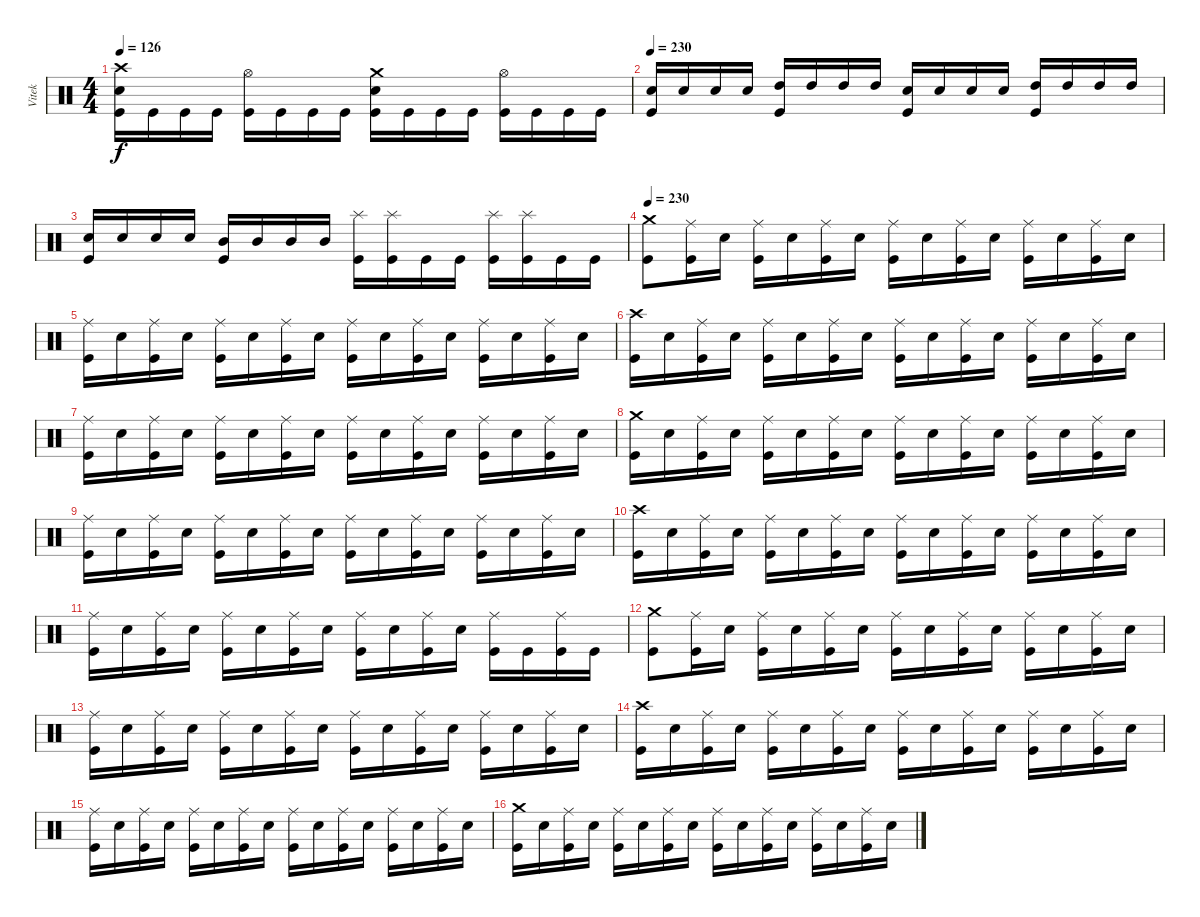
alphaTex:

\track ("Vitek" "Vitek") {instrument percussion}
\staff {score}
\articulation defaults
\ts (4 4)
\tempo 126
\clef neutral
\ks c
("Crash high (hit)" "Snare (hit) 2" "Kick (hit)").16{dy f} "Kick (hit)".16 "Kick (hit)".16 "Kick (hit)".16 ("Hi-Hat (open)" "Kick (hit)").16 "Kick (hit)".16 "Kick (hit)".16 "Kick (hit)".16 ("Crash medium (hit)" "Snare (hit) 2" "Kick (hit)").16 "Kick (hit)".16 "Kick (hit)".16 "Kick (hit)".16 ("Hi-Hat (open)" "Kick (hit)").16 "Kick (hit)".16 "Kick (hit)".16 "Kick (hit)".16 |
\tempo 230
("Snare (hit) 2" "Kick (hit)").16 "Snare (hit) 2".16 "Snare (hit) 2".16 "Snare (hit) 2".16 ("High Tom (hit)" "Kick (hit)").16 "High Tom (hit)".16 "High Tom (hit)".16 "High Tom (hit)".16 ("Snare (hit) 2" "Kick (hit)").16 "Snare (hit) 2".16 "Snare (hit) 2".16 "Snare (hit) 2".16 ("High Tom (hit)" "Kick (hit)").16 "High Tom (hit)".16 "High Tom (hit)".16 "High Tom (hit)".16 |
("Snare (hit) 2" "Kick (hit)").16 "Snare (hit) 2".16 "Snare (hit) 2".16 "Snare (hit) 2".16 ("Mid Tom (hit)" "Kick (hit)").16 "Mid Tom (hit)".16 "Mid Tom (hit)".16 "Mid Tom (hit)".16 ("Splash (hit)" "Kick (hit)").16 ("Splash (hit)" "Kick (hit)").16 "Kick (hit)".16 "Kick (hit)".16 ("Splash (hit)" "Kick (hit)").16 ("Splash (hit)" "Kick (hit)").16 "Kick (hit)".16 "Kick (hit)".16 |
\tempo 230
("Crash medium (hit)" "Kick (hit)").8 ("Ride (middle)" "Kick (hit)").16 "Snare (hit) 2".16 ("Ride (middle)" "Kick (hit)").16 "Snare (hit) 2".16 ("Ride (middle)" "Kick (hit)").16 "Snare (hit) 2".16 ("Ride (middle)" "Kick (hit)").16 "Snare (hit) 2".16 ("Ride (middle)" "Kick (hit)").16 "Snare (hit) 2".16 ("Ride (middle)" "Kick (hit)").16 "Snare (hit) 2".16 ("Ride (middle)" "Kick (hit)").16 "Snare (hit) 2".16 |
("Ride (middle)" "Kick (hit)").16 "Snare (hit) 2".16 ("Ride (middle)" "Kick (hit)").16 "Snare (hit) 2".16 ("Ride (middle)" "Kick (hit)").16 "Snare (hit) 2".16 ("Ride (middle)" "Kick (hit)").16 "Snare (hit) 2".16 ("Ride (middle)" "Kick (hit)").16 "Snare (hit) 2".16 ("Ride (middle)" "Kick (hit)").16 "Snare (hit) 2".16 ("Ride (middle)" "Kick (hit)").16 "Snare (hit) 2".16 ("Ride (middle)" "Kick (hit)").16 "Snare (hit) 2".16 |
("Crash high (hit)" "Kick (hit)").16 "Snare (hit) 2".16 ("Ride (middle)" "Kick (hit)").16 "Snare (hit) 2".16 ("Ride (middle)" "Kick (hit)").16 "Snare (hit) 2".16 ("Ride (middle)" "Kick (hit)").16 "Snare (hit) 2".16 ("Ride (middle)" "Kick (hit)").16 "Snare (hit) 2".16 ("Ride (middle)" "Kick (hit)").16 "Snare (hit) 2".16 ("Ride (middle)" "Kick (hit)").16 "Snare (hit) 2".16 ("Ride (middle)" "Kick (hit)").16 "Snare (hit) 2".16 |
("Ride (middle)" "Kick (hit)").16 "Snare (hit) 2".16 ("Ride (middle)" "Kick (hit)").16 "Snare (hit) 2".16 ("Ride (middle)" "Kick (hit)").16 "Snare (hit) 2".16 ("Ride (middle)" "Kick (hit)").16 "Snare (hit) 2".16 ("Ride (middle)" "Kick (hit)").16 "Snare (hit) 2".16 ("Ride (middle)" "Kick (hit)").16 "Snare (hit) 2".16 ("Ride (middle)" "Kick (hit)").16 "Snare (hit) 2".16 ("Ride (middle)" "Kick (hit)").16 "Snare (hit) 2".16 |
("Crash medium (hit)" "Kick (hit)").16 "Snare (hit) 2".16 ("Ride (middle)" "Kick (hit)").16 "Snare (hit) 2".16 ("Ride (middle)" "Kick (hit)").16 "Snare (hit) 2".16 ("Ride (middle)" "Kick (hit)").16 "Snare (hit) 2".16 ("Ride (middle)" "Kick (hit)").16 "Snare (hit) 2".16 ("Ride (middle)" "Kick (hit)").16 "Snare (hit) 2".16 ("Ride (middle)" "Kick (hit)").16 "Snare (hit) 2".16 ("Ride (middle)" "Kick (hit)").16 "Snare (hit) 2".16 |
("Ride (middle)" "Kick (hit)").16 "Snare (hit) 2".16 ("Ride (middle)" "Kick (hit)").16 "Snare (hit) 2".16 ("Ride (middle)" "Kick (hit)").16 "Snare (hit) 2".16 ("Ride (middle)" "Kick (hit)").16 "Snare (hit) 2".16 ("Ride (middle)" "Kick (hit)").16 "Snare (hit) 2".16 ("Ride (middle)" "Kick (hit)").16 "Snare (hit) 2".16 ("Ride (middle)" "Kick (hit)").16 "Snare (hit) 2".16 ("Ride (middle)" "Kick (hit)").16 "Snare (hit) 2".16 |
("Crash high (hit)" "Kick (hit)").16 "Snare (hit) 2".16 ("Ride (middle)" "Kick (hit)").16 "Snare (hit) 2".16 ("Ride (middle)" "Kick (hit)").16 "Snare (hit) 2".16 ("Ride (middle)" "Kick (hit)").16 "Snare (hit) 2".16 ("Ride (middle)" "Kick (hit)").16 "Snare (hit) 2".16 ("Ride (middle)" "Kick (hit)").16 "Snare (hit) 2".16 ("Ride (middle)" "Kick (hit)").16 "Snare (hit) 2".16 ("Ride (middle)" "Kick (hit)").16 "Snare (hit) 2".16 |
("Ride (middle)" "Kick (hit)").16 "Snare (hit) 2".16 ("Ride (middle)" "Kick (hit)").16 "Snare (hit) 2".16 ("Ride (middle)" "Kick (hit)").16 "Snare (hit) 2".16 ("Ride (middle)" "Kick (hit)").16 "Snare (hit) 2".16 ("Ride (middle)" "Kick (hit)").16 "Snare (hit) 2".16 ("Ride (middle)" "Kick (hit)").16 "Snare (hit) 2".16 ("Ride (middle)" "Kick (hit)").16 "Kick (hit)".16 ("Ride (middle)" "Kick (hit)").16 "Kick (hit)".16 |
("Crash medium (hit)" "Kick (hit)").8 ("Ride (middle)" "Kick (hit)").16 "Snare (hit) 2".16 ("Ride (middle)" "Kick (hit)").16 "Snare (hit) 2".16 ("Ride (middle)" "Kick (hit)").16 "Snare (hit) 2".16 ("Ride (middle)" "Kick (hit)").16 "Snare (hit) 2".16 ("Ride (middle)" "Kick (hit)").16 "Snare (hit) 2".16 ("Ride (middle)" "Kick (hit)").16 "Snare (hit) 2".16 ("Ride (middle)" "Kick (hit)").16 "Snare (hit) 2".16 |
("Ride (middle)" "Kick (hit)").16 "Snare (hit) 2".16 ("Ride (middle)" "Kick (hit)").16 "Snare (hit) 2".16 ("Ride (middle)" "Kick (hit)").16 "Snare (hit) 2".16 ("Ride (middle)" "Kick (hit)").16 "Snare (hit) 2".16 ("Ride (middle)" "Kick (hit)").16 "Snare (hit) 2".16 ("Ride (middle)" "Kick (hit)").16 "Snare (hit) 2".16 ("Ride (middle)" "Kick (hit)").16 "Snare (hit) 2".16 ("Ride (middle)" "Kick (hit)").16 "Snare (hit) 2".16 |
("Crash high (hit)" "Kick (hit)").16 "Snare (hit) 2".16 ("Ride (middle)" "Kick (hit)").16 "Snare (hit) 2".16 ("Ride (middle)" "Kick (hit)").16 "Snare (hit) 2".16 ("Ride (middle)" "Kick (hit)").16 "Snare (hit) 2".16 ("Ride (middle)" "Kick (hit)").16 "Snare (hit) 2".16 ("Ride (middle)" "Kick (hit)").16 "Snare (hit) 2".16 ("Ride (middle)" "Kick (hit)").16 "Snare (hit) 2".16 ("Ride (middle)" "Kick (hit)").16 "Snare (hit) 2".16 |
("Ride (middle)" "Kick (hit)").16 "Snare (hit) 2".16 ("Ride (middle)" "Kick (hit)").16 "Snare (hit) 2".16 ("Ride (middle)" "Kick (hit)").16 "Snare (hit) 2".16 ("Ride (middle)" "Kick (hit)").16 "Snare (hit) 2".16 ("Ride (middle)" "Kick (hit)").16 "Snare (hit) 2".16 ("Ride (middle)" "Kick (hit)").16 "Snare (hit) 2".16 ("Ride (middle)" "Kick (hit)").16 "Snare (hit) 2".16 ("Ride (middle)" "Kick (hit)").16 "Snare (hit) 2".16 |
("Crash medium (hit)" "Kick (hit)").16 "Snare (hit) 2".16 ("Ride (middle)" "Kick (hit)").16 "Snare (hit) 2".16 ("Ride (middle)" "Kick (hit)").16 "Snare (hit) 2".16 ("Ride (middle)" "Kick (hit)").16 "Snare (hit) 2".16 ("Ride (middle)" "Kick (hit)").16 "Snare (hit) 2".16 ("Ride (middle)" "Kick (hit)").16 "Snare (hit) 2".16 ("Ride (middle)" "Kick (hit)").16 "Snare (hit) 2".16 ("Ride (middle)" "Kick (hit)").16 "Snare (hit) 2".16
